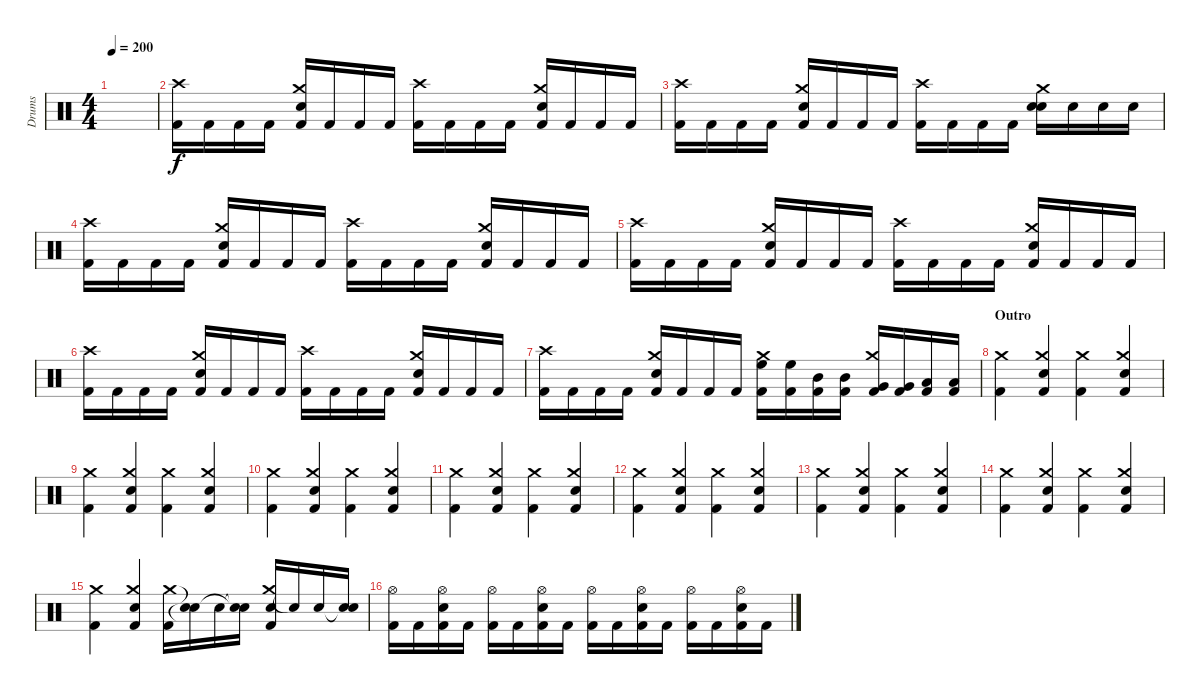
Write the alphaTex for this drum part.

\track ("Drums" "Drums") {instrument percussion}
\staff {score}
\articulation defaults
\ts (4 4)
\tempo 200
\clef neutral
\ks c
|
("Crash high (hit)" "Kick (hit) 2").16 "Kick (hit) 2".16 "Kick (hit) 2".16 "Kick (hit) 2".16 ("Crash medium (hit)" "Snare (hit) 2" "Kick (hit) 2").16 "Kick (hit) 2".16 "Kick (hit) 2".16 "Kick (hit) 2".16 ("Crash high (hit)" "Kick (hit) 2").16 "Kick (hit) 2".16 "Kick (hit) 2".16 "Kick (hit) 2".16 ("Crash medium (hit)" "Snare (hit) 2" "Kick (hit) 2").16 "Kick (hit) 2".16 "Kick (hit) 2".16 "Kick (hit) 2".16 |
("Crash high (hit)" "Kick (hit) 2").16 "Kick (hit) 2".16 "Kick (hit) 2".16 "Kick (hit) 2".16 ("Crash medium (hit)" "Snare (hit) 2" "Kick (hit) 2").16 "Kick (hit) 2".16 "Kick (hit) 2".16 "Kick (hit) 2".16 ("Crash high (hit)" "Kick (hit) 2").16 "Kick (hit) 2".16 "Kick (hit) 2".16 "Kick (hit) 2".16 ("Crash medium (hit)" "Snare (hit) 2" "Snare (hit) 2").16 "Snare (hit) 2".16 "Snare (hit) 2".16 "Snare (hit) 2".16 |
("Crash high (hit)" "Kick (hit) 2").16 "Kick (hit) 2".16 "Kick (hit) 2".16 "Kick (hit) 2".16 ("Crash medium (hit)" "Snare (hit) 2" "Kick (hit) 2").16 "Kick (hit) 2".16 "Kick (hit) 2".16 "Kick (hit) 2".16 ("Crash high (hit)" "Kick (hit) 2").16 "Kick (hit) 2".16 "Kick (hit) 2".16 "Kick (hit) 2".16 ("Crash medium (hit)" "Snare (hit) 2" "Kick (hit) 2").16 "Kick (hit) 2".16 "Kick (hit) 2".16 "Kick (hit) 2".16 |
("Crash high (hit)" "Kick (hit) 2").16 "Kick (hit) 2".16 "Kick (hit) 2".16 "Kick (hit) 2".16 ("Crash medium (hit)" "Snare (hit) 2" "Kick (hit) 2").16 "Kick (hit) 2".16 "Kick (hit) 2".16 "Kick (hit) 2".16 ("Crash high (hit)" "Kick (hit) 2").16 "Kick (hit) 2".16 "Kick (hit) 2".16 "Kick (hit) 2".16 ("Crash medium (hit)" "Snare (hit) 2" "Kick (hit) 2").16 "Kick (hit) 2".16 "Kick (hit) 2".16 "Kick (hit) 2".16 |
("Crash high (hit)" "Kick (hit) 2").16 "Kick (hit) 2".16 "Kick (hit) 2".16 "Kick (hit) 2".16 ("Crash medium (hit)" "Snare (hit) 2" "Kick (hit) 2").16 "Kick (hit) 2".16 "Kick (hit) 2".16 "Kick (hit) 2".16 ("Crash high (hit)" "Kick (hit) 2").16 "Kick (hit) 2".16 "Kick (hit) 2".16 "Kick (hit) 2".16 ("Crash medium (hit)" "Snare (hit) 2" "Kick (hit) 2").16 "Kick (hit) 2".16 "Kick (hit) 2".16 "Kick (hit) 2".16 |
("Crash high (hit)" "Kick (hit) 2").16 "Kick (hit) 2".16 "Kick (hit) 2".16 "Kick (hit) 2".16 ("Crash medium (hit)" "Snare (hit) 2" "Kick (hit) 2").16 "Kick (hit) 2".16 "Kick (hit) 2".16 "Kick (hit) 2".16 ("Crash medium (hit)" "High Floor Tom (hit)" "Kick (hit) 2").16 ("High Floor Tom (hit)" "Kick (hit) 2").16 ("Mid Tom (hit)" "Kick (hit) 2").16 ("Mid Tom (hit)" "Kick (hit) 2").16 ("Crash medium (hit)" "Very Low Tom (hit)" "Kick (hit) 2").16 ("Very Low Tom (hit)" "Kick (hit) 2").16 ("Low Floor Tom (hit)" "Kick (hit) 2").16 ("Low Floor Tom (hit)" "Kick (hit) 2").16 |
\section ("" "Outro")
("Crash medium (hit)" "Kick (hit) 2").4 ("Crash medium (hit)" "Snare (hit) 2" "Kick (hit) 2").4 ("Crash medium (hit)" "Kick (hit) 2").4 ("Crash medium (hit)" "Snare (hit) 2" "Kick (hit) 2").4 |
("Crash medium (hit)" "Kick (hit) 2").4 ("Crash medium (hit)" "Snare (hit) 2" "Kick (hit) 2").4 ("Crash medium (hit)" "Kick (hit) 2").4 ("Crash medium (hit)" "Snare (hit) 2" "Kick (hit) 2").4 |
("Crash medium (hit)" "Kick (hit) 2").4 ("Crash medium (hit)" "Snare (hit) 2" "Kick (hit) 2").4 ("Crash medium (hit)" "Kick (hit) 2").4 ("Crash medium (hit)" "Snare (hit) 2" "Kick (hit) 2").4 |
("Crash medium (hit)" "Kick (hit) 2").4 ("Crash medium (hit)" "Snare (hit) 2" "Kick (hit) 2").4 ("Crash medium (hit)" "Kick (hit) 2").4 ("Crash medium (hit)" "Snare (hit) 2" "Kick (hit) 2").4 |
("Crash medium (hit)" "Kick (hit) 2").4 ("Crash medium (hit)" "Snare (hit) 2" "Kick (hit) 2").4 ("Crash medium (hit)" "Kick (hit) 2").4 ("Crash medium (hit)" "Snare (hit) 2" "Kick (hit) 2").4 |
("Crash medium (hit)" "Kick (hit) 2").4 ("Crash medium (hit)" "Snare (hit) 2" "Kick (hit) 2").4 ("Crash medium (hit)" "Kick (hit) 2").4 ("Crash medium (hit)" "Snare (hit) 2" "Kick (hit) 2").4 |
("Crash medium (hit)" "Kick (hit) 2").4 ("Crash medium (hit)" "Snare (hit) 2" "Kick (hit) 2").4 ("Crash medium (hit)" "Kick (hit) 2").4 ("Crash medium (hit)" "Snare (hit) 2" "Kick (hit) 2").4 |
("Crash medium (hit)" "Kick (hit) 2").4 ("Crash medium (hit)" "Snare (hit) 2" "Kick (hit) 2").4 ("Crash medium (hit)" "Kick (hit) 2").16 ("Snare (hit)"{t} "Snare (hit)"{t}).16 "Snare (hit) 2".16 ("Snare (hit)"{t} "Snare (hit)"{t}).16 ("Crash medium (hit)" "Snare (hit) 2" "Kick (hit) 2").16 "Snare (hit)"{t}.16 "Snare (hit) 2".16 ("Snare (hit)"{t} "Snare (hit) 2").16 |
("Hi-Hat (open)" "Kick (hit) 2").16 "Kick (hit) 2".16 ("Snare (hit) 2" "Hi-Hat (open)" "Kick (hit) 2").16 "Kick (hit) 2".16 ("Hi-Hat (open)" "Kick (hit) 2").16 "Kick (hit) 2".16 ("Snare (hit) 2" "Hi-Hat (open)" "Kick (hit) 2").16 "Kick (hit) 2".16 ("Hi-Hat (open)" "Kick (hit) 2").16 "Kick (hit) 2".16 ("Snare (hit) 2" "Hi-Hat (open)" "Kick (hit) 2").16 "Kick (hit) 2".16 ("Hi-Hat (open)" "Kick (hit) 2").16 "Kick (hit) 2".16 ("Snare (hit) 2" "Hi-Hat (open)" "Kick (hit) 2").16 "Kick (hit) 2".16
